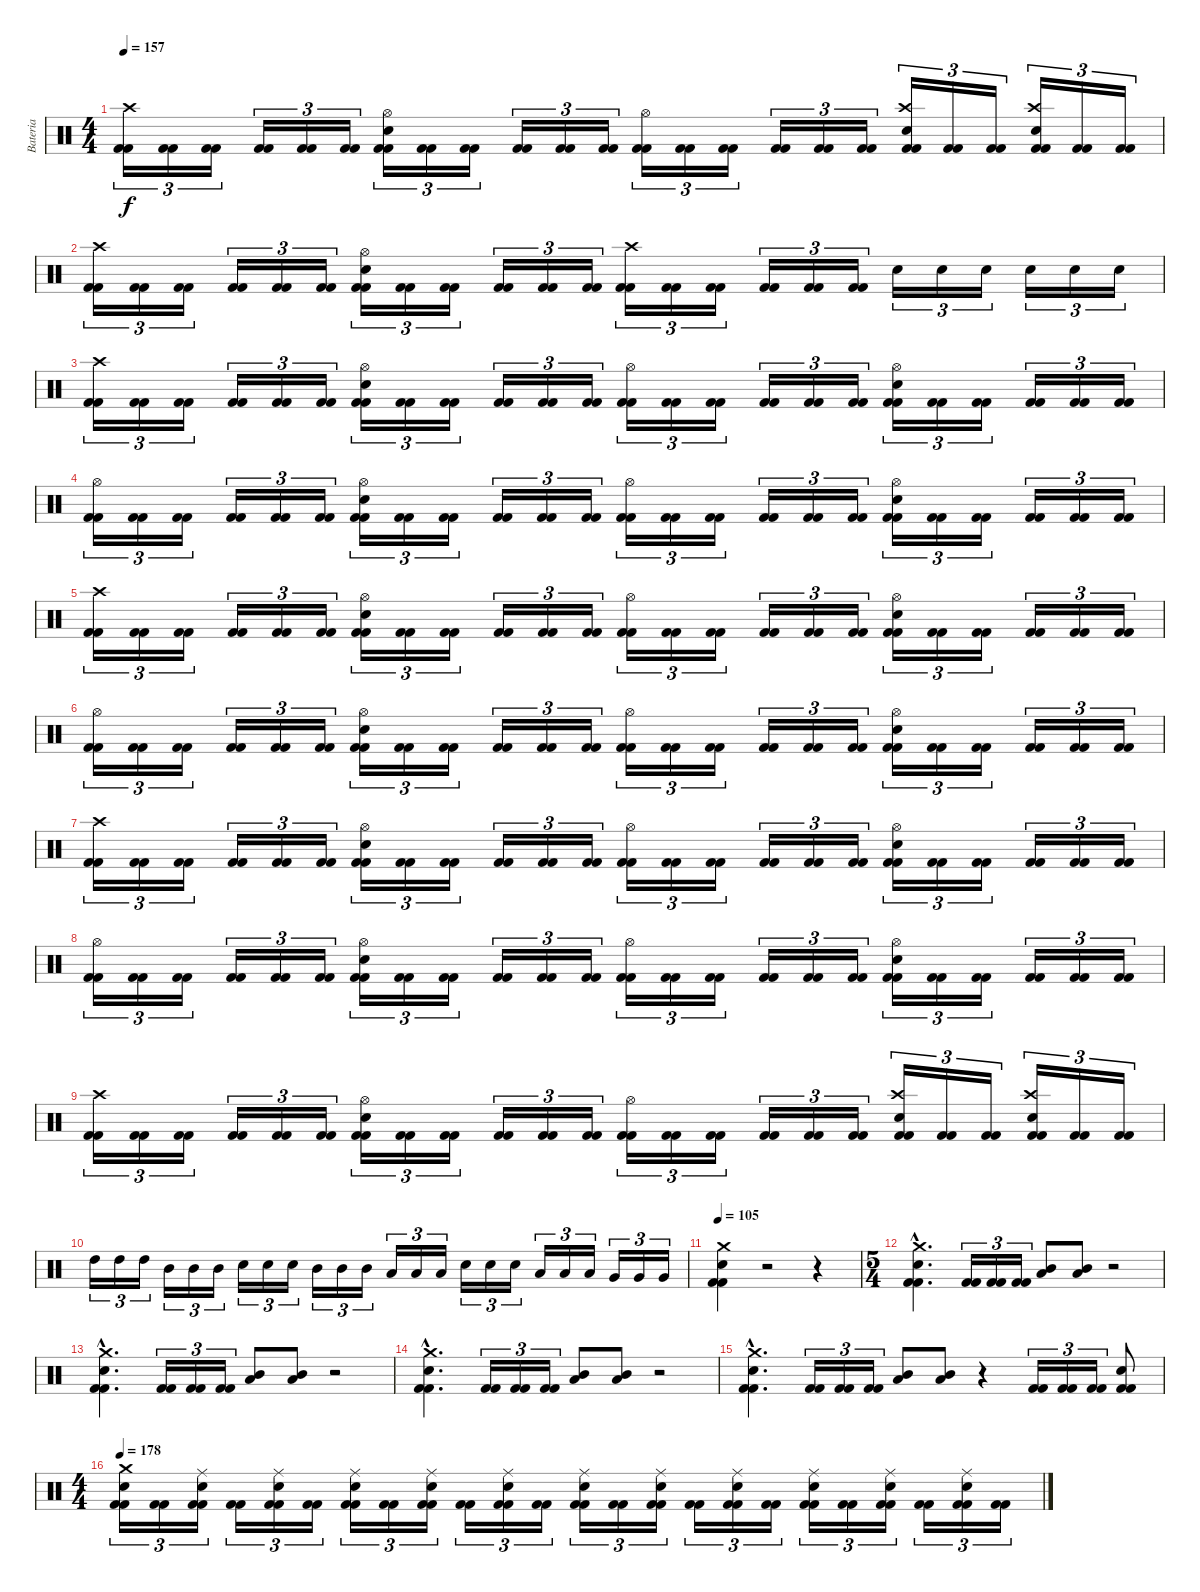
\track ("Bateria" "Bateria") {instrument percussion}
\staff {score}
\articulation defaults
\ts (4 4)
\tempo 157
\clef neutral
\ks c
("Kick (hit) 2" "Kick (hit) 2" "Crash high (hit)").16{tu (3 2) dy f} ("Kick (hit) 2" "Kick (hit) 2").16{tu (3 2)} ("Kick (hit) 2" "Kick (hit) 2").16{tu (3 2)} ("Kick (hit) 2" "Kick (hit) 2").16{tu (3 2)} ("Kick (hit) 2" "Kick (hit) 2").16{tu (3 2)} ("Kick (hit) 2" "Kick (hit) 2").16{tu (3 2)} ("Kick (hit) 2" "Kick (hit) 2" "Snare (hit) 2" "Hi-Hat (open)").16{tu (3 2)} ("Kick (hit) 2" "Kick (hit) 2").16{tu (3 2)} ("Kick (hit) 2" "Kick (hit) 2").16{tu (3 2)} ("Kick (hit) 2" "Kick (hit) 2").16{tu (3 2)} ("Kick (hit) 2" "Kick (hit) 2").16{tu (3 2)} ("Kick (hit) 2" "Kick (hit) 2").16{tu (3 2)} ("Kick (hit) 2" "Kick (hit) 2" "Hi-Hat (open)").16{tu (3 2)} ("Kick (hit) 2" "Kick (hit) 2").16{tu (3 2)} ("Kick (hit) 2" "Kick (hit) 2").16{tu (3 2)} ("Kick (hit) 2" "Kick (hit) 2").16{tu (3 2)} ("Kick (hit) 2" "Kick (hit) 2").16{tu (3 2)} ("Kick (hit) 2" "Kick (hit) 2").16{tu (3 2)} ("Kick (hit) 2" "Kick (hit) 2" "Snare (hit) 2" "Crash high (hit)").16{tu (3 2)} ("Kick (hit) 2" "Kick (hit) 2").16{tu (3 2)} ("Kick (hit) 2" "Kick (hit) 2").16{tu (3 2)} ("Kick (hit) 2" "Kick (hit) 2" "Snare (hit) 2" "Crash high (hit)").16{tu (3 2)} ("Kick (hit) 2" "Kick (hit) 2").16{tu (3 2)} ("Kick (hit) 2" "Kick (hit) 2").16{tu (3 2)} |
("Kick (hit) 2" "Kick (hit) 2" "Crash high (hit)").16{tu (3 2)} ("Kick (hit) 2" "Kick (hit) 2").16{tu (3 2)} ("Kick (hit) 2" "Kick (hit) 2").16{tu (3 2)} ("Kick (hit) 2" "Kick (hit) 2").16{tu (3 2)} ("Kick (hit) 2" "Kick (hit) 2").16{tu (3 2)} ("Kick (hit) 2" "Kick (hit) 2").16{tu (3 2)} ("Kick (hit) 2" "Kick (hit) 2" "Snare (hit) 2" "Hi-Hat (open)").16{tu (3 2)} ("Kick (hit) 2" "Kick (hit) 2").16{tu (3 2)} ("Kick (hit) 2" "Kick (hit) 2").16{tu (3 2)} ("Kick (hit) 2" "Kick (hit) 2").16{tu (3 2)} ("Kick (hit) 2" "Kick (hit) 2").16{tu (3 2)} ("Kick (hit) 2" "Kick (hit) 2").16{tu (3 2)} ("Kick (hit) 2" "Kick (hit) 2" "Crash high (hit)").16{tu (3 2)} ("Kick (hit) 2" "Kick (hit) 2").16{tu (3 2)} ("Kick (hit) 2" "Kick (hit) 2").16{tu (3 2)} ("Kick (hit) 2" "Kick (hit) 2").16{tu (3 2)} ("Kick (hit) 2" "Kick (hit) 2").16{tu (3 2)} ("Kick (hit) 2" "Kick (hit) 2").16{tu (3 2)} "Snare (hit) 2".16{tu (3 2)} "Snare (hit) 2".16{tu (3 2)} "Snare (hit) 2".16{tu (3 2)} "Snare (hit) 2".16{tu (3 2)} "Snare (hit) 2".16{tu (3 2)} "Snare (hit) 2".16{tu (3 2)} |
("Kick (hit) 2" "Kick (hit) 2" "Crash high (hit)").16{tu (3 2)} ("Kick (hit) 2" "Kick (hit) 2").16{tu (3 2)} ("Kick (hit) 2" "Kick (hit) 2").16{tu (3 2)} ("Kick (hit) 2" "Kick (hit) 2").16{tu (3 2)} ("Kick (hit) 2" "Kick (hit) 2").16{tu (3 2)} ("Kick (hit) 2" "Kick (hit) 2").16{tu (3 2)} ("Kick (hit) 2" "Kick (hit) 2" "Snare (hit) 2" "Hi-Hat (open)").16{tu (3 2)} ("Kick (hit) 2" "Kick (hit) 2").16{tu (3 2)} ("Kick (hit) 2" "Kick (hit) 2").16{tu (3 2)} ("Kick (hit) 2" "Kick (hit) 2").16{tu (3 2)} ("Kick (hit) 2" "Kick (hit) 2").16{tu (3 2)} ("Kick (hit) 2" "Kick (hit) 2").16{tu (3 2)} ("Kick (hit) 2" "Kick (hit) 2" "Hi-Hat (open)").16{tu (3 2)} ("Kick (hit) 2" "Kick (hit) 2").16{tu (3 2)} ("Kick (hit) 2" "Kick (hit) 2").16{tu (3 2)} ("Kick (hit) 2" "Kick (hit) 2").16{tu (3 2)} ("Kick (hit) 2" "Kick (hit) 2").16{tu (3 2)} ("Kick (hit) 2" "Kick (hit) 2").16{tu (3 2)} ("Kick (hit) 2" "Kick (hit) 2" "Snare (hit) 2" "Hi-Hat (open)").16{tu (3 2)} ("Kick (hit) 2" "Kick (hit) 2").16{tu (3 2)} ("Kick (hit) 2" "Kick (hit) 2").16{tu (3 2)} ("Kick (hit) 2" "Kick (hit) 2").16{tu (3 2)} ("Kick (hit) 2" "Kick (hit) 2").16{tu (3 2)} ("Kick (hit) 2" "Kick (hit) 2").16{tu (3 2)} |
("Kick (hit) 2" "Kick (hit) 2" "Hi-Hat (open)").16{tu (3 2)} ("Kick (hit) 2" "Kick (hit) 2").16{tu (3 2)} ("Kick (hit) 2" "Kick (hit) 2").16{tu (3 2)} ("Kick (hit) 2" "Kick (hit) 2").16{tu (3 2)} ("Kick (hit) 2" "Kick (hit) 2").16{tu (3 2)} ("Kick (hit) 2" "Kick (hit) 2").16{tu (3 2)} ("Kick (hit) 2" "Kick (hit) 2" "Snare (hit) 2" "Hi-Hat (open)").16{tu (3 2)} ("Kick (hit) 2" "Kick (hit) 2").16{tu (3 2)} ("Kick (hit) 2" "Kick (hit) 2").16{tu (3 2)} ("Kick (hit) 2" "Kick (hit) 2").16{tu (3 2)} ("Kick (hit) 2" "Kick (hit) 2").16{tu (3 2)} ("Kick (hit) 2" "Kick (hit) 2").16{tu (3 2)} ("Kick (hit) 2" "Kick (hit) 2" "Hi-Hat (open)").16{tu (3 2)} ("Kick (hit) 2" "Kick (hit) 2").16{tu (3 2)} ("Kick (hit) 2" "Kick (hit) 2").16{tu (3 2)} ("Kick (hit) 2" "Kick (hit) 2").16{tu (3 2)} ("Kick (hit) 2" "Kick (hit) 2").16{tu (3 2)} ("Kick (hit) 2" "Kick (hit) 2").16{tu (3 2)} ("Kick (hit) 2" "Kick (hit) 2" "Snare (hit) 2" "Hi-Hat (open)").16{tu (3 2)} ("Kick (hit) 2" "Kick (hit) 2").16{tu (3 2)} ("Kick (hit) 2" "Kick (hit) 2").16{tu (3 2)} ("Kick (hit) 2" "Kick (hit) 2").16{tu (3 2)} ("Kick (hit) 2" "Kick (hit) 2").16{tu (3 2)} ("Kick (hit) 2" "Kick (hit) 2").16{tu (3 2)} |
("Kick (hit) 2" "Kick (hit) 2" "Crash high (hit)").16{tu (3 2)} ("Kick (hit) 2" "Kick (hit) 2").16{tu (3 2)} ("Kick (hit) 2" "Kick (hit) 2").16{tu (3 2)} ("Kick (hit) 2" "Kick (hit) 2").16{tu (3 2)} ("Kick (hit) 2" "Kick (hit) 2").16{tu (3 2)} ("Kick (hit) 2" "Kick (hit) 2").16{tu (3 2)} ("Kick (hit) 2" "Kick (hit) 2" "Snare (hit) 2" "Hi-Hat (open)").16{tu (3 2)} ("Kick (hit) 2" "Kick (hit) 2").16{tu (3 2)} ("Kick (hit) 2" "Kick (hit) 2").16{tu (3 2)} ("Kick (hit) 2" "Kick (hit) 2").16{tu (3 2)} ("Kick (hit) 2" "Kick (hit) 2").16{tu (3 2)} ("Kick (hit) 2" "Kick (hit) 2").16{tu (3 2)} ("Kick (hit) 2" "Kick (hit) 2" "Hi-Hat (open)").16{tu (3 2)} ("Kick (hit) 2" "Kick (hit) 2").16{tu (3 2)} ("Kick (hit) 2" "Kick (hit) 2").16{tu (3 2)} ("Kick (hit) 2" "Kick (hit) 2").16{tu (3 2)} ("Kick (hit) 2" "Kick (hit) 2").16{tu (3 2)} ("Kick (hit) 2" "Kick (hit) 2").16{tu (3 2)} ("Kick (hit) 2" "Kick (hit) 2" "Snare (hit) 2" "Hi-Hat (open)").16{tu (3 2)} ("Kick (hit) 2" "Kick (hit) 2").16{tu (3 2)} ("Kick (hit) 2" "Kick (hit) 2").16{tu (3 2)} ("Kick (hit) 2" "Kick (hit) 2").16{tu (3 2)} ("Kick (hit) 2" "Kick (hit) 2").16{tu (3 2)} ("Kick (hit) 2" "Kick (hit) 2").16{tu (3 2)} |
("Kick (hit) 2" "Kick (hit) 2" "Hi-Hat (open)").16{tu (3 2)} ("Kick (hit) 2" "Kick (hit) 2").16{tu (3 2)} ("Kick (hit) 2" "Kick (hit) 2").16{tu (3 2)} ("Kick (hit) 2" "Kick (hit) 2").16{tu (3 2)} ("Kick (hit) 2" "Kick (hit) 2").16{tu (3 2)} ("Kick (hit) 2" "Kick (hit) 2").16{tu (3 2)} ("Kick (hit) 2" "Kick (hit) 2" "Snare (hit) 2" "Hi-Hat (open)").16{tu (3 2)} ("Kick (hit) 2" "Kick (hit) 2").16{tu (3 2)} ("Kick (hit) 2" "Kick (hit) 2").16{tu (3 2)} ("Kick (hit) 2" "Kick (hit) 2").16{tu (3 2)} ("Kick (hit) 2" "Kick (hit) 2").16{tu (3 2)} ("Kick (hit) 2" "Kick (hit) 2").16{tu (3 2)} ("Kick (hit) 2" "Kick (hit) 2" "Hi-Hat (open)").16{tu (3 2)} ("Kick (hit) 2" "Kick (hit) 2").16{tu (3 2)} ("Kick (hit) 2" "Kick (hit) 2").16{tu (3 2)} ("Kick (hit) 2" "Kick (hit) 2").16{tu (3 2)} ("Kick (hit) 2" "Kick (hit) 2").16{tu (3 2)} ("Kick (hit) 2" "Kick (hit) 2").16{tu (3 2)} ("Kick (hit) 2" "Kick (hit) 2" "Snare (hit) 2" "Hi-Hat (open)").16{tu (3 2)} ("Kick (hit) 2" "Kick (hit) 2").16{tu (3 2)} ("Kick (hit) 2" "Kick (hit) 2").16{tu (3 2)} ("Kick (hit) 2" "Kick (hit) 2").16{tu (3 2)} ("Kick (hit) 2" "Kick (hit) 2").16{tu (3 2)} ("Kick (hit) 2" "Kick (hit) 2").16{tu (3 2)} |
("Kick (hit) 2" "Kick (hit) 2" "Crash high (hit)").16{tu (3 2)} ("Kick (hit) 2" "Kick (hit) 2").16{tu (3 2)} ("Kick (hit) 2" "Kick (hit) 2").16{tu (3 2)} ("Kick (hit) 2" "Kick (hit) 2").16{tu (3 2)} ("Kick (hit) 2" "Kick (hit) 2").16{tu (3 2)} ("Kick (hit) 2" "Kick (hit) 2").16{tu (3 2)} ("Kick (hit) 2" "Kick (hit) 2" "Snare (hit) 2" "Hi-Hat (open)").16{tu (3 2)} ("Kick (hit) 2" "Kick (hit) 2").16{tu (3 2)} ("Kick (hit) 2" "Kick (hit) 2").16{tu (3 2)} ("Kick (hit) 2" "Kick (hit) 2").16{tu (3 2)} ("Kick (hit) 2" "Kick (hit) 2").16{tu (3 2)} ("Kick (hit) 2" "Kick (hit) 2").16{tu (3 2)} ("Kick (hit) 2" "Kick (hit) 2" "Hi-Hat (open)").16{tu (3 2)} ("Kick (hit) 2" "Kick (hit) 2").16{tu (3 2)} ("Kick (hit) 2" "Kick (hit) 2").16{tu (3 2)} ("Kick (hit) 2" "Kick (hit) 2").16{tu (3 2)} ("Kick (hit) 2" "Kick (hit) 2").16{tu (3 2)} ("Kick (hit) 2" "Kick (hit) 2").16{tu (3 2)} ("Kick (hit) 2" "Kick (hit) 2" "Snare (hit) 2" "Hi-Hat (open)").16{tu (3 2)} ("Kick (hit) 2" "Kick (hit) 2").16{tu (3 2)} ("Kick (hit) 2" "Kick (hit) 2").16{tu (3 2)} ("Kick (hit) 2" "Kick (hit) 2").16{tu (3 2)} ("Kick (hit) 2" "Kick (hit) 2").16{tu (3 2)} ("Kick (hit) 2" "Kick (hit) 2").16{tu (3 2)} |
("Kick (hit) 2" "Kick (hit) 2" "Hi-Hat (open)").16{tu (3 2)} ("Kick (hit) 2" "Kick (hit) 2").16{tu (3 2)} ("Kick (hit) 2" "Kick (hit) 2").16{tu (3 2)} ("Kick (hit) 2" "Kick (hit) 2").16{tu (3 2)} ("Kick (hit) 2" "Kick (hit) 2").16{tu (3 2)} ("Kick (hit) 2" "Kick (hit) 2").16{tu (3 2)} ("Kick (hit) 2" "Kick (hit) 2" "Snare (hit) 2" "Hi-Hat (open)").16{tu (3 2)} ("Kick (hit) 2" "Kick (hit) 2").16{tu (3 2)} ("Kick (hit) 2" "Kick (hit) 2").16{tu (3 2)} ("Kick (hit) 2" "Kick (hit) 2").16{tu (3 2)} ("Kick (hit) 2" "Kick (hit) 2").16{tu (3 2)} ("Kick (hit) 2" "Kick (hit) 2").16{tu (3 2)} ("Kick (hit) 2" "Kick (hit) 2" "Hi-Hat (open)").16{tu (3 2)} ("Kick (hit) 2" "Kick (hit) 2").16{tu (3 2)} ("Kick (hit) 2" "Kick (hit) 2").16{tu (3 2)} ("Kick (hit) 2" "Kick (hit) 2").16{tu (3 2)} ("Kick (hit) 2" "Kick (hit) 2").16{tu (3 2)} ("Kick (hit) 2" "Kick (hit) 2").16{tu (3 2)} ("Kick (hit) 2" "Kick (hit) 2" "Snare (hit) 2" "Hi-Hat (open)").16{tu (3 2)} ("Kick (hit) 2" "Kick (hit) 2").16{tu (3 2)} ("Kick (hit) 2" "Kick (hit) 2").16{tu (3 2)} ("Kick (hit) 2" "Kick (hit) 2").16{tu (3 2)} ("Kick (hit) 2" "Kick (hit) 2").16{tu (3 2)} ("Kick (hit) 2" "Kick (hit) 2").16{tu (3 2)} |
("Kick (hit) 2" "Kick (hit) 2" "Crash high (hit)").16{tu (3 2)} ("Kick (hit) 2" "Kick (hit) 2").16{tu (3 2)} ("Kick (hit) 2" "Kick (hit) 2").16{tu (3 2)} ("Kick (hit) 2" "Kick (hit) 2").16{tu (3 2)} ("Kick (hit) 2" "Kick (hit) 2").16{tu (3 2)} ("Kick (hit) 2" "Kick (hit) 2").16{tu (3 2)} ("Kick (hit) 2" "Kick (hit) 2" "Snare (hit) 2" "Hi-Hat (open)").16{tu (3 2)} ("Kick (hit) 2" "Kick (hit) 2").16{tu (3 2)} ("Kick (hit) 2" "Kick (hit) 2").16{tu (3 2)} ("Kick (hit) 2" "Kick (hit) 2").16{tu (3 2)} ("Kick (hit) 2" "Kick (hit) 2").16{tu (3 2)} ("Kick (hit) 2" "Kick (hit) 2").16{tu (3 2)} ("Kick (hit) 2" "Kick (hit) 2" "Hi-Hat (open)").16{tu (3 2)} ("Kick (hit) 2" "Kick (hit) 2").16{tu (3 2)} ("Kick (hit) 2" "Kick (hit) 2").16{tu (3 2)} ("Kick (hit) 2" "Kick (hit) 2").16{tu (3 2)} ("Kick (hit) 2" "Kick (hit) 2").16{tu (3 2)} ("Kick (hit) 2" "Kick (hit) 2").16{tu (3 2)} ("Kick (hit) 2" "Kick (hit) 2" "Snare (hit) 2" "Crash high (hit)").16{tu (3 2)} ("Kick (hit) 2" "Kick (hit) 2").16{tu (3 2)} ("Kick (hit) 2" "Kick (hit) 2").16{tu (3 2)} ("Kick (hit) 2" "Kick (hit) 2" "Snare (hit) 2" "Crash high (hit)").16{tu (3 2)} ("Kick (hit) 2" "Kick (hit) 2").16{tu (3 2)} ("Kick (hit) 2" "Kick (hit) 2").16{tu (3 2)} |
"High Tom (hit)".16{tu (3 2)} "High Tom (hit)".16{tu (3 2)} "High Tom (hit)".16{tu (3 2)} "Mid Tom (hit)".16{tu (3 2)} "Mid Tom (hit)".16{tu (3 2)} "Mid Tom (hit)".16{tu (3 2)} "Snare (hit) 2".16{tu (3 2)} "Snare (hit) 2".16{tu (3 2)} "Snare (hit) 2".16{tu (3 2)} "Mid Tom (hit)".16{tu (3 2)} "Mid Tom (hit)".16{tu (3 2)} "Mid Tom (hit)".16{tu (3 2)} "Low Tom (hit)".16{tu (3 2)} "Low Tom (hit)".16{tu (3 2)} "Low Tom (hit)".16{tu (3 2)} "Snare (hit) 2".16{tu (3 2)} "Snare (hit) 2".16{tu (3 2)} "Snare (hit) 2".16{tu (3 2)} "Low Tom (hit)".16{tu (3 2)} "Low Tom (hit)".16{tu (3 2)} "Low Tom (hit)".16{tu (3 2)} "Very Low Tom (hit)".16{tu (3 2)} "Very Low Tom (hit)".16{tu (3 2)} "Very Low Tom (hit)".16{tu (3 2)} |
\tempo 105
("Kick (hit) 2" "Kick (hit) 2" "Snare (hit) 2" "Crash medium (hit)").4 r.2 r.4 |
\ts (5 4)
("Kick (hit) 2"{hac} "Kick (hit) 2"{hac} "Snare (hit) 2"{hac} "Crash medium (hit)"{hac}).4{d} ("Kick (hit) 2" "Kick (hit) 2").16{tu (3 2)} ("Kick (hit) 2" "Kick (hit) 2").16{tu (3 2)} ("Kick (hit) 2" "Kick (hit) 2").16{tu (3 2)} ("Low Tom (hit)" "Mid Tom (hit)").8 ("Mid Tom (hit)" "Low Tom (hit)").8 r.2 |
("Kick (hit) 2"{hac} "Kick (hit) 2"{hac} "Snare (hit) 2"{hac} "Crash medium (hit)"{hac}).4{d} ("Kick (hit) 2" "Kick (hit) 2").16{tu (3 2)} ("Kick (hit) 2" "Kick (hit) 2").16{tu (3 2)} ("Kick (hit) 2" "Kick (hit) 2").16{tu (3 2)} ("Low Tom (hit)" "Mid Tom (hit)").8 ("Low Tom (hit)" "Mid Tom (hit)").8 r.2 |
("Kick (hit) 2"{hac} "Kick (hit) 2"{hac} "Snare (hit) 2"{hac} "Crash medium (hit)"{hac}).4{d} ("Kick (hit) 2" "Kick (hit) 2").16{tu (3 2)} ("Kick (hit) 2" "Kick (hit) 2").16{tu (3 2)} ("Kick (hit) 2" "Kick (hit) 2").16{tu (3 2)} ("Low Tom (hit)" "Mid Tom (hit)").8 ("Low Tom (hit)" "Mid Tom (hit)").8 r.2 |
("Kick (hit) 2"{hac} "Kick (hit) 2"{hac} "Snare (hit) 2"{hac} "Crash medium (hit)"{hac}).4{d} ("Kick (hit) 2" "Kick (hit) 2").16{tu (3 2)} ("Kick (hit) 2" "Kick (hit) 2").16{tu (3 2)} ("Kick (hit) 2" "Kick (hit) 2").16{tu (3 2)} ("Low Tom (hit)" "Mid Tom (hit)").8 ("Low Tom (hit)" "Mid Tom (hit)").8 r.4 ("Kick (hit) 2" "Kick (hit) 2").16{tu (3 2)} ("Kick (hit) 2" "Kick (hit) 2").16{tu (3 2)} ("Kick (hit) 2" "Kick (hit) 2").16{tu (3 2)} ("Kick (hit) 2" "Kick (hit) 2" "Snare (hit) 2").8 |
\ts (4 4)
\tempo 178
("Kick (hit) 2" "Kick (hit) 2" "Snare (hit) 2" "Crash medium (hit)").16{tu (3 2)} ("Kick (hit) 2" "Kick (hit) 2").16{tu (3 2)} ("Kick (hit) 2" "Kick (hit) 2" "Snare (hit) 2" "Ride (middle)").16{tu (3 2)} ("Kick (hit) 2" "Kick (hit) 2").16{tu (3 2)} ("Kick (hit) 2" "Kick (hit) 2" "Snare (hit) 2" "Ride (middle)").16{tu (3 2)} ("Kick (hit) 2" "Kick (hit) 2").16{tu (3 2)} ("Kick (hit) 2" "Kick (hit) 2" "Snare (hit) 2" "Ride (middle)").16{tu (3 2)} ("Kick (hit) 2" "Kick (hit) 2").16{tu (3 2)} ("Kick (hit) 2" "Kick (hit) 2" "Snare (hit) 2" "Ride (middle)").16{tu (3 2)} ("Kick (hit) 2" "Kick (hit) 2").16{tu (3 2)} ("Kick (hit) 2" "Kick (hit) 2" "Snare (hit) 2" "Ride (middle)").16{tu (3 2)} ("Kick (hit) 2" "Kick (hit) 2").16{tu (3 2)} ("Kick (hit) 2" "Kick (hit) 2" "Snare (hit) 2" "Ride (middle)").16{tu (3 2)} ("Kick (hit) 2" "Kick (hit) 2").16{tu (3 2)} ("Kick (hit) 2" "Kick (hit) 2" "Snare (hit) 2" "Ride (middle)").16{tu (3 2)} ("Kick (hit) 2" "Kick (hit) 2").16{tu (3 2)} ("Kick (hit) 2" "Kick (hit) 2" "Snare (hit) 2" "Ride (middle)").16{tu (3 2)} ("Kick (hit) 2" "Kick (hit) 2").16{tu (3 2)} ("Kick (hit) 2" "Kick (hit) 2" "Snare (hit) 2" "Ride (middle)").16{tu (3 2)} ("Kick (hit) 2" "Kick (hit) 2").16{tu (3 2)} ("Kick (hit) 2" "Kick (hit) 2" "Snare (hit) 2" "Ride (middle)").16{tu (3 2)} ("Kick (hit) 2" "Kick (hit) 2").16{tu (3 2)} ("Kick (hit) 2" "Kick (hit) 2" "Snare (hit) 2" "Ride (middle)").16{tu (3 2)} ("Kick (hit) 2" "Kick (hit) 2").16{tu (3 2)}
